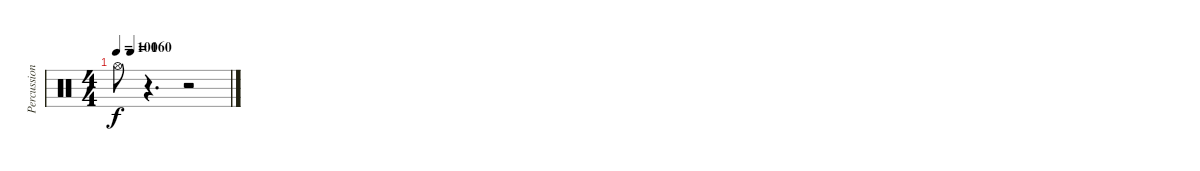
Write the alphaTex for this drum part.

\track ("Percussion" "Percussion") {instrument percussion}
\staff {score}
\articulation defaults
\ts (4 4)
\tempo 100
\tempo (160 0.125)
\clef neutral
\ks c "Hi-Hat (open)".8{dy f}
r.4{d} r.2
